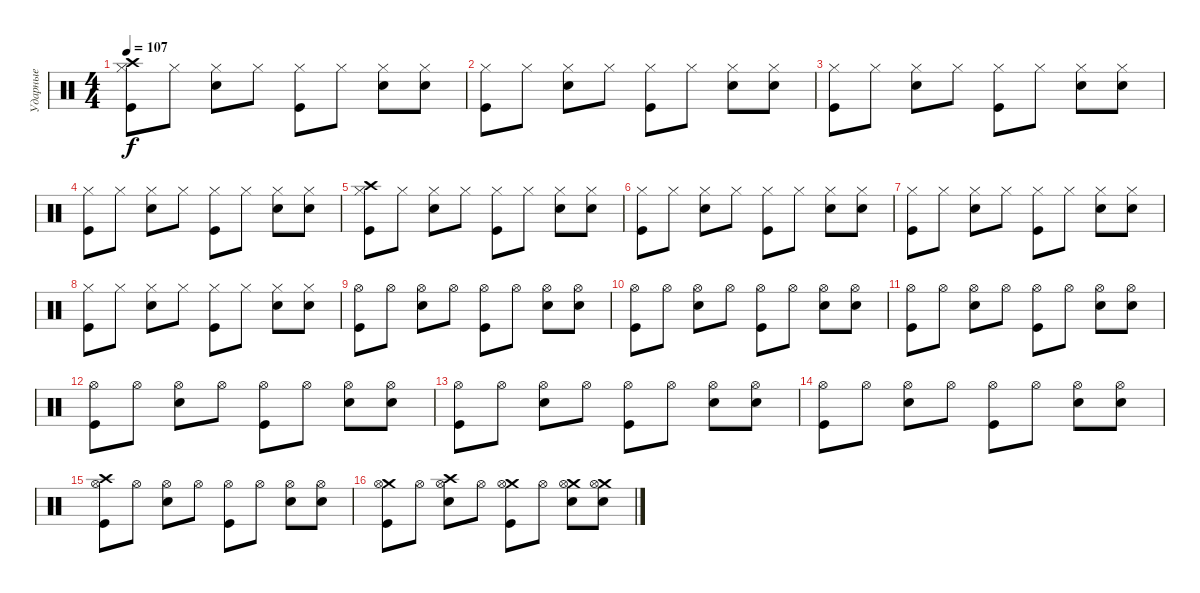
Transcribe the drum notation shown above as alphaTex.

\track ("Ударные" "Ударные") {instrument percussion}
\staff {score}
\articulation defaults
\ts (4 4)
\tempo 107
\clef neutral
\ks c
("Crash high (hit)" "Hi-Hat (closed)" "Kick (hit)").8{dy f} "Hi-Hat (closed)".8 ("Hi-Hat (closed)" "Electric Snare (hit)").8 "Hi-Hat (closed)".8 ("Hi-Hat (closed)" "Kick (hit)").8 "Hi-Hat (closed)".8 ("Hi-Hat (closed)" "Electric Snare (hit)").8 ("Hi-Hat (closed)" "Electric Snare (hit)").8 |
("Hi-Hat (closed)" "Kick (hit)").8 "Hi-Hat (closed)".8 ("Hi-Hat (closed)" "Electric Snare (hit)").8 "Hi-Hat (closed)".8 ("Hi-Hat (closed)" "Kick (hit)").8 "Hi-Hat (closed)".8 ("Hi-Hat (closed)" "Electric Snare (hit)").8 ("Hi-Hat (closed)" "Electric Snare (hit)").8 |
("Hi-Hat (closed)" "Kick (hit)").8 "Hi-Hat (closed)".8 ("Hi-Hat (closed)" "Electric Snare (hit)").8 "Hi-Hat (closed)".8 ("Hi-Hat (closed)" "Kick (hit)").8 "Hi-Hat (closed)".8 ("Hi-Hat (closed)" "Electric Snare (hit)").8 ("Hi-Hat (closed)" "Electric Snare (hit)").8 |
("Hi-Hat (closed)" "Kick (hit)").8 "Hi-Hat (closed)".8 ("Hi-Hat (closed)" "Electric Snare (hit)").8 "Hi-Hat (closed)".8 ("Hi-Hat (closed)" "Kick (hit)").8 "Hi-Hat (closed)".8 ("Hi-Hat (closed)" "Electric Snare (hit)").8 ("Hi-Hat (closed)" "Electric Snare (hit)").8 |
("Crash high (hit)" "Hi-Hat (closed)" "Kick (hit)").8 "Hi-Hat (closed)".8 ("Hi-Hat (closed)" "Electric Snare (hit)").8 "Hi-Hat (closed)".8 ("Hi-Hat (closed)" "Kick (hit)").8 "Hi-Hat (closed)".8 ("Hi-Hat (closed)" "Electric Snare (hit)").8 ("Hi-Hat (closed)" "Electric Snare (hit)").8 |
("Hi-Hat (closed)" "Kick (hit)").8 "Hi-Hat (closed)".8 ("Hi-Hat (closed)" "Electric Snare (hit)").8 "Hi-Hat (closed)".8 ("Hi-Hat (closed)" "Kick (hit)").8 "Hi-Hat (closed)".8 ("Hi-Hat (closed)" "Electric Snare (hit)").8 ("Hi-Hat (closed)" "Electric Snare (hit)").8 |
("Hi-Hat (closed)" "Kick (hit)").8 "Hi-Hat (closed)".8 ("Hi-Hat (closed)" "Electric Snare (hit)").8 "Hi-Hat (closed)".8 ("Hi-Hat (closed)" "Kick (hit)").8 "Hi-Hat (closed)".8 ("Hi-Hat (closed)" "Electric Snare (hit)").8 ("Hi-Hat (closed)" "Electric Snare (hit)").8 |
("Hi-Hat (closed)" "Kick (hit)").8 "Hi-Hat (closed)".8 ("Hi-Hat (closed)" "Electric Snare (hit)").8 "Hi-Hat (closed)".8 ("Hi-Hat (closed)" "Kick (hit)").8 "Hi-Hat (closed)".8 ("Hi-Hat (closed)" "Electric Snare (hit)").8 ("Hi-Hat (closed)" "Electric Snare (hit)").8 |
("Hi-Hat (open)" "Kick (hit)").8 "Hi-Hat (open)".8 ("Hi-Hat (open)" "Electric Snare (hit)").8 "Hi-Hat (open)".8 ("Hi-Hat (open)" "Kick (hit)").8 "Hi-Hat (open)".8 ("Hi-Hat (open)" "Electric Snare (hit)").8 ("Hi-Hat (open)" "Electric Snare (hit)").8 |
("Hi-Hat (open)" "Kick (hit)").8 "Hi-Hat (open)".8 ("Hi-Hat (open)" "Electric Snare (hit)").8 "Hi-Hat (open)".8 ("Hi-Hat (open)" "Kick (hit)").8 "Hi-Hat (open)".8 ("Hi-Hat (open)" "Electric Snare (hit)").8 ("Hi-Hat (open)" "Electric Snare (hit)").8 |
("Hi-Hat (open)" "Kick (hit)").8 "Hi-Hat (open)".8 ("Hi-Hat (open)" "Electric Snare (hit)").8 "Hi-Hat (open)".8 ("Hi-Hat (open)" "Kick (hit)").8 "Hi-Hat (open)".8 ("Hi-Hat (open)" "Electric Snare (hit)").8 ("Hi-Hat (open)" "Electric Snare (hit)").8 |
("Hi-Hat (open)" "Kick (hit)").8 "Hi-Hat (open)".8 ("Hi-Hat (open)" "Electric Snare (hit)").8 "Hi-Hat (open)".8 ("Hi-Hat (open)" "Kick (hit)").8 "Hi-Hat (open)".8 ("Hi-Hat (open)" "Electric Snare (hit)").8 ("Hi-Hat (open)" "Electric Snare (hit)").8 |
("Hi-Hat (open)" "Kick (hit)").8 "Hi-Hat (open)".8 ("Hi-Hat (open)" "Electric Snare (hit)").8 "Hi-Hat (open)".8 ("Hi-Hat (open)" "Kick (hit)").8 "Hi-Hat (open)".8 ("Hi-Hat (open)" "Electric Snare (hit)").8 ("Hi-Hat (open)" "Electric Snare (hit)").8 |
("Hi-Hat (open)" "Kick (hit)").8 "Hi-Hat (open)".8 ("Hi-Hat (open)" "Electric Snare (hit)").8 "Hi-Hat (open)".8 ("Hi-Hat (open)" "Kick (hit)").8 "Hi-Hat (open)".8 ("Hi-Hat (open)" "Electric Snare (hit)").8 ("Hi-Hat (open)" "Electric Snare (hit)").8 |
("Crash high (hit)" "Hi-Hat (open)" "Kick (hit)").8 "Hi-Hat (open)".8 ("Hi-Hat (open)" "Electric Snare (hit)").8 "Hi-Hat (open)".8 ("Hi-Hat (open)" "Kick (hit)").8 "Hi-Hat (open)".8 ("Hi-Hat (open)" "Electric Snare (hit)").8 ("Hi-Hat (open)" "Electric Snare (hit)").8 |
("Crash medium (hit)" "Hi-Hat (open)" "Kick (hit)").8 "Hi-Hat (open)".8 ("Crash high (hit)" "Hi-Hat (open)" "Electric Snare (hit)").8 "Hi-Hat (open)".8 ("Crash medium (hit)" "Hi-Hat (open)" "Kick (hit)").8 "Hi-Hat (open)".8 ("Crash medium (hit)" "Hi-Hat (open)" "Electric Snare (hit)").8 ("Crash medium (hit)" "Hi-Hat (open)" "Electric Snare (hit)").8
